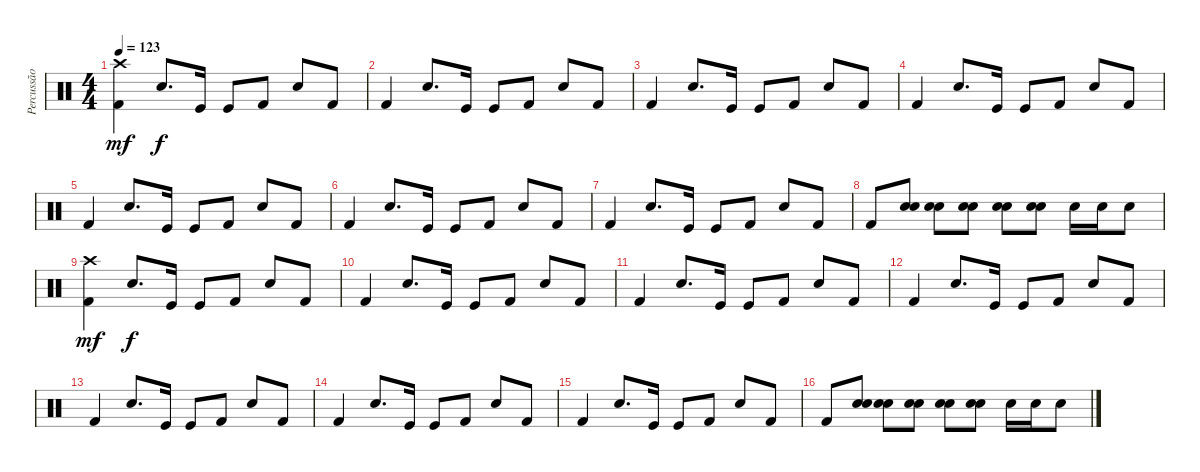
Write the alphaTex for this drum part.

\track ("Percussão" "Percussão") {instrument percussion}
\staff {score}
\articulation defaults
\ts (4 4)
\tempo 123
\clef neutral
\ks c
("Crash high (hit)" "Kick (hit) 2").4{dy mf} "Snare (hit) 2".8{d dy f} "Kick (hit)".16 "Kick (hit)".8 "Kick (hit) 2".8 "Snare (hit) 2".8 "Kick (hit) 2".8 |
"Kick (hit) 2".4 "Snare (hit) 2".8{d} "Kick (hit)".16 "Kick (hit)".8 "Kick (hit) 2".8 "Snare (hit) 2".8 "Kick (hit) 2".8 |
"Kick (hit) 2".4 "Snare (hit) 2".8{d} "Kick (hit)".16 "Kick (hit)".8 "Kick (hit) 2".8 "Snare (hit) 2".8 "Kick (hit) 2".8 |
"Kick (hit) 2".4 "Snare (hit) 2".8{d} "Kick (hit)".16 "Kick (hit)".8 "Kick (hit) 2".8 "Snare (hit) 2".8 "Kick (hit) 2".8 |
"Kick (hit) 2".4 "Snare (hit) 2".8{d} "Kick (hit)".16 "Kick (hit)".8 "Kick (hit) 2".8 "Snare (hit) 2".8 "Kick (hit) 2".8 |
"Kick (hit) 2".4 "Snare (hit) 2".8{d} "Kick (hit)".16 "Kick (hit)".8 "Kick (hit) 2".8 "Snare (hit) 2".8 "Kick (hit) 2".8 |
"Kick (hit) 2".4 "Snare (hit) 2".8{d} "Kick (hit)".16 "Kick (hit)".8 "Kick (hit) 2".8 "Snare (hit) 2".8 "Kick (hit) 2".8 |
"Kick (hit) 2".8 ("Snare (hit) 2" "Snare (hit) 2").8 ("Snare (hit) 2" "Snare (hit) 2").8 ("Snare (hit) 2" "Snare (hit) 2").8 ("Snare (hit) 2" "Snare (hit) 2").8 ("Snare (hit) 2" "Snare (hit) 2").8 "Snare (hit) 2".16 "Snare (hit) 2".16 "Snare (hit) 2".8 |
("Crash high (hit)" "Kick (hit) 2").4{dy mf} "Snare (hit) 2".8{d dy f} "Kick (hit)".16 "Kick (hit)".8 "Kick (hit) 2".8 "Snare (hit) 2".8 "Kick (hit) 2".8 |
"Kick (hit) 2".4 "Snare (hit) 2".8{d} "Kick (hit)".16 "Kick (hit)".8 "Kick (hit) 2".8 "Snare (hit) 2".8 "Kick (hit) 2".8 |
"Kick (hit) 2".4 "Snare (hit) 2".8{d} "Kick (hit)".16 "Kick (hit)".8 "Kick (hit) 2".8 "Snare (hit) 2".8 "Kick (hit) 2".8 |
"Kick (hit) 2".4 "Snare (hit) 2".8{d} "Kick (hit)".16 "Kick (hit)".8 "Kick (hit) 2".8 "Snare (hit) 2".8 "Kick (hit) 2".8 |
"Kick (hit) 2".4 "Snare (hit) 2".8{d} "Kick (hit)".16 "Kick (hit)".8 "Kick (hit) 2".8 "Snare (hit) 2".8 "Kick (hit) 2".8 |
"Kick (hit) 2".4 "Snare (hit) 2".8{d} "Kick (hit)".16 "Kick (hit)".8 "Kick (hit) 2".8 "Snare (hit) 2".8 "Kick (hit) 2".8 |
"Kick (hit) 2".4 "Snare (hit) 2".8{d} "Kick (hit)".16 "Kick (hit)".8 "Kick (hit) 2".8 "Snare (hit) 2".8 "Kick (hit) 2".8 |
"Kick (hit) 2".8 ("Snare (hit) 2" "Snare (hit) 2").8 ("Snare (hit) 2" "Snare (hit) 2").8 ("Snare (hit) 2" "Snare (hit) 2").8 ("Snare (hit) 2" "Snare (hit) 2").8 ("Snare (hit) 2" "Snare (hit) 2").8 "Snare (hit) 2".16 "Snare (hit) 2".16 "Snare (hit) 2".8
